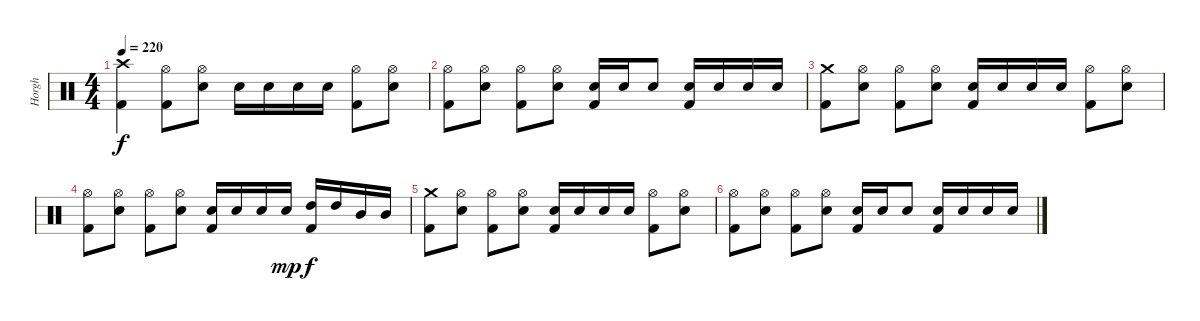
\track ("Horgh" "Horgh") {instrument percussion}
\staff {score}
\articulation defaults
\ts (4 4)
\tempo 220
\clef neutral
\ks c
("Crash high (hit)" "Kick (hit) 2").4{dy f} ("Hi-Hat (open)" "Kick (hit) 2").8 ("Hi-Hat (open)" "Electric Snare (hit)").8 "Electric Snare (hit)".16 "Electric Snare (hit)".16 "Electric Snare (hit)".16 "Electric Snare (hit)".16 ("Hi-Hat (open)" "Kick (hit) 2").8 ("Hi-Hat (open)" "Electric Snare (hit)").8 |
("Hi-Hat (open)" "Kick (hit) 2").8 ("Hi-Hat (open)" "Electric Snare (hit)").8 ("Hi-Hat (open)" "Kick (hit) 2").8 ("Hi-Hat (open)" "Electric Snare (hit)").8 ("Electric Snare (hit)" "Kick (hit) 2").16 "Electric Snare (hit)".16 "Electric Snare (hit)".8 ("Electric Snare (hit)" "Kick (hit) 2").16 "Electric Snare (hit)".16 "Electric Snare (hit)".16 "Electric Snare (hit)".16 |
("Crash medium (hit)" "Kick (hit) 2").8 ("Hi-Hat (open)" "Electric Snare (hit)").8 ("Hi-Hat (open)" "Kick (hit) 2").8 ("Hi-Hat (open)" "Electric Snare (hit)").8 ("Electric Snare (hit)" "Kick (hit) 2").16 "Electric Snare (hit)".16 "Electric Snare (hit)".16 "Electric Snare (hit)".16 ("Hi-Hat (open)" "Kick (hit) 2").8 ("Hi-Hat (open)" "Electric Snare (hit)").8 |
("Hi-Hat (open)" "Kick (hit) 2").8 ("Hi-Hat (open)" "Electric Snare (hit)").8 ("Hi-Hat (open)" "Kick (hit) 2").8 ("Hi-Hat (open)" "Electric Snare (hit)").8 ("Electric Snare (hit)" "Kick (hit) 2").16 "Electric Snare (hit)".16 "Electric Snare (hit)".16 "Electric Snare (hit)".16{dy mp} ("High Tom (hit)" "Kick (hit) 2").16{dy f} "High Tom (hit)".16 "Mid Tom (hit)".16 "Mid Tom (hit)".16 |
("Crash medium (hit)" "Kick (hit) 2").8 ("Hi-Hat (open)" "Electric Snare (hit)").8 ("Hi-Hat (open)" "Kick (hit) 2").8 ("Hi-Hat (open)" "Electric Snare (hit)").8 ("Electric Snare (hit)" "Kick (hit) 2").16 "Electric Snare (hit)".16 "Electric Snare (hit)".16 "Electric Snare (hit)".16 ("Hi-Hat (open)" "Kick (hit) 2").8 ("Hi-Hat (open)" "Electric Snare (hit)").8 |
("Hi-Hat (open)" "Kick (hit) 2").8 ("Hi-Hat (open)" "Electric Snare (hit)").8 ("Hi-Hat (open)" "Kick (hit) 2").8 ("Hi-Hat (open)" "Electric Snare (hit)").8 ("Electric Snare (hit)" "Kick (hit) 2").16 "Electric Snare (hit)".16 "Electric Snare (hit)".8 ("Electric Snare (hit)" "Kick (hit) 2").16 "Electric Snare (hit)".16 "Electric Snare (hit)".16 "Electric Snare (hit)".16
